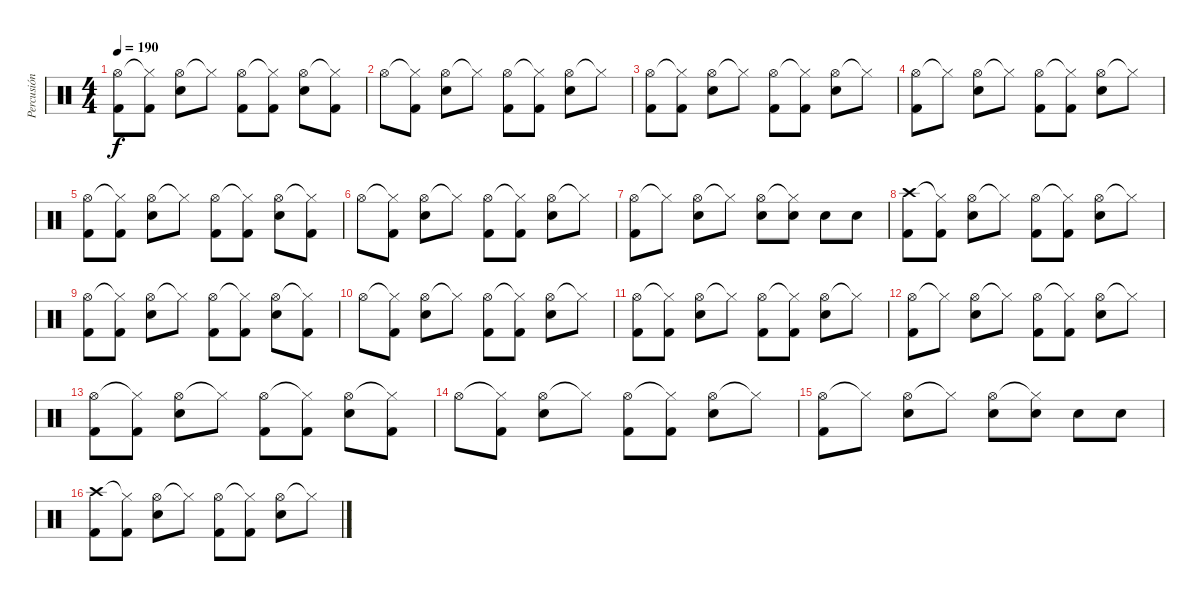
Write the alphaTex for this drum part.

\track ("Percusión" "Percusión") {instrument percussion}
\staff {score}
\articulation defaults
\ts (4 4)
\tempo 190
\clef neutral
\ks c
("Hi-Hat (open)" "Kick (hit) 2").8{dy f} ("Hi-Hat (closed)"{t} "Kick (hit) 2").8 ("Hi-Hat (open)" "Snare (hit) 2").8 "Hi-Hat (closed)"{t}.8 ("Hi-Hat (open)" "Kick (hit) 2").8 ("Hi-Hat (closed)"{t} "Kick (hit) 2").8 ("Hi-Hat (open)" "Snare (hit) 2").8 ("Hi-Hat (closed)"{t} "Kick (hit) 2").8 |
"Hi-Hat (open)".8 ("Hi-Hat (closed)"{t} "Kick (hit) 2").8 ("Hi-Hat (open)" "Snare (hit) 2").8 "Hi-Hat (closed)"{t}.8 ("Hi-Hat (open)" "Kick (hit) 2").8 ("Hi-Hat (closed)"{t} "Kick (hit) 2").8 ("Hi-Hat (open)" "Snare (hit) 2").8 "Hi-Hat (closed)"{t}.8 |
("Hi-Hat (open)" "Kick (hit) 2").8 ("Hi-Hat (closed)"{t} "Kick (hit) 2").8 ("Hi-Hat (open)" "Snare (hit) 2").8 "Hi-Hat (closed)"{t}.8 ("Hi-Hat (open)" "Kick (hit) 2").8 ("Hi-Hat (closed)"{t} "Kick (hit) 2").8 ("Hi-Hat (open)" "Snare (hit) 2").8 "Hi-Hat (closed)"{t}.8 |
("Hi-Hat (open)" "Kick (hit) 2").8 "Hi-Hat (closed)"{t}.8 ("Hi-Hat (open)" "Snare (hit) 2").8 "Hi-Hat (closed)"{t}.8 ("Hi-Hat (open)" "Kick (hit) 2").8 ("Hi-Hat (closed)"{t} "Kick (hit) 2").8 ("Hi-Hat (open)" "Snare (hit) 2").8 "Hi-Hat (closed)"{t}.8 |
("Hi-Hat (open)" "Kick (hit) 2").8 ("Hi-Hat (closed)"{t} "Kick (hit) 2").8 ("Hi-Hat (open)" "Snare (hit) 2").8 "Hi-Hat (closed)"{t}.8 ("Hi-Hat (open)" "Kick (hit) 2").8 ("Hi-Hat (closed)"{t} "Kick (hit) 2").8 ("Hi-Hat (open)" "Snare (hit) 2").8 ("Hi-Hat (closed)"{t} "Kick (hit) 2").8 |
"Hi-Hat (open)".8 ("Hi-Hat (closed)"{t} "Kick (hit) 2").8 ("Hi-Hat (open)" "Snare (hit) 2").8 "Hi-Hat (closed)"{t}.8 ("Hi-Hat (open)" "Kick (hit) 2").8 ("Hi-Hat (closed)"{t} "Kick (hit) 2").8 ("Hi-Hat (open)" "Snare (hit) 2").8 "Hi-Hat (closed)"{t}.8 |
("Hi-Hat (open)" "Kick (hit) 2").8 "Hi-Hat (closed)"{t}.8 ("Hi-Hat (open)" "Snare (hit) 2").8 "Hi-Hat (closed)"{t}.8 ("Hi-Hat (open)" "Snare (hit) 2").8 ("Hi-Hat (closed)"{t} "Snare (hit) 2").8 "Snare (hit) 2".8 "Snare (hit) 2".8 |
("Crash high (hit)" "Kick (hit) 2").8 ("Hi-Hat (closed)"{t} "Kick (hit) 2").8 ("Hi-Hat (open)" "Snare (hit) 2").8 "Hi-Hat (closed)"{t}.8 ("Hi-Hat (open)" "Kick (hit) 2").8 ("Hi-Hat (closed)"{t} "Kick (hit) 2").8 ("Hi-Hat (open)" "Snare (hit) 2").8 "Hi-Hat (closed)"{t}.8 |
("Hi-Hat (open)" "Kick (hit) 2").8 ("Hi-Hat (closed)"{t} "Kick (hit) 2").8 ("Hi-Hat (open)" "Snare (hit) 2").8 "Hi-Hat (closed)"{t}.8 ("Hi-Hat (open)" "Kick (hit) 2").8 ("Hi-Hat (closed)"{t} "Kick (hit) 2").8 ("Hi-Hat (open)" "Snare (hit) 2").8 ("Hi-Hat (closed)"{t} "Kick (hit) 2").8 |
"Hi-Hat (open)".8 ("Hi-Hat (closed)"{t} "Kick (hit) 2").8 ("Hi-Hat (open)" "Snare (hit) 2").8 "Hi-Hat (closed)"{t}.8 ("Hi-Hat (open)" "Kick (hit) 2").8 ("Hi-Hat (closed)"{t} "Kick (hit) 2").8 ("Hi-Hat (open)" "Snare (hit) 2").8 "Hi-Hat (closed)"{t}.8 |
("Hi-Hat (open)" "Kick (hit) 2").8 ("Hi-Hat (closed)"{t} "Kick (hit) 2").8 ("Hi-Hat (open)" "Snare (hit) 2").8 "Hi-Hat (closed)"{t}.8 ("Hi-Hat (open)" "Kick (hit) 2").8 ("Hi-Hat (closed)"{t} "Kick (hit) 2").8 ("Hi-Hat (open)" "Snare (hit) 2").8 "Hi-Hat (closed)"{t}.8 |
("Hi-Hat (open)" "Kick (hit) 2").8 "Hi-Hat (closed)"{t}.8 ("Hi-Hat (open)" "Snare (hit) 2").8 "Hi-Hat (closed)"{t}.8 ("Hi-Hat (open)" "Kick (hit) 2").8 ("Hi-Hat (closed)"{t} "Kick (hit) 2").8 ("Hi-Hat (open)" "Snare (hit) 2").8 "Hi-Hat (closed)"{t}.8 |
("Hi-Hat (open)" "Kick (hit) 2").8 ("Hi-Hat (closed)"{t} "Kick (hit) 2").8 ("Hi-Hat (open)" "Snare (hit) 2").8 "Hi-Hat (closed)"{t}.8 ("Hi-Hat (open)" "Kick (hit) 2").8 ("Hi-Hat (closed)"{t} "Kick (hit) 2").8 ("Hi-Hat (open)" "Snare (hit) 2").8 ("Hi-Hat (closed)"{t} "Kick (hit) 2").8 |
"Hi-Hat (open)".8 ("Hi-Hat (closed)"{t} "Kick (hit) 2").8 ("Hi-Hat (open)" "Snare (hit) 2").8 "Hi-Hat (closed)"{t}.8 ("Hi-Hat (open)" "Kick (hit) 2").8 ("Hi-Hat (closed)"{t} "Kick (hit) 2").8 ("Hi-Hat (open)" "Snare (hit) 2").8 "Hi-Hat (closed)"{t}.8 |
("Hi-Hat (open)" "Kick (hit) 2").8 "Hi-Hat (closed)"{t}.8 ("Hi-Hat (open)" "Snare (hit) 2").8 "Hi-Hat (closed)"{t}.8 ("Hi-Hat (open)" "Snare (hit) 2").8 ("Hi-Hat (closed)"{t} "Snare (hit) 2").8 "Snare (hit) 2".8 "Snare (hit) 2".8 |
("Crash high (hit)" "Kick (hit) 2").8 ("Hi-Hat (closed)"{t} "Kick (hit) 2").8 ("Hi-Hat (open)" "Snare (hit) 2").8 "Hi-Hat (closed)"{t}.8 ("Hi-Hat (open)" "Kick (hit) 2").8 ("Hi-Hat (closed)"{t} "Kick (hit) 2").8 ("Hi-Hat (open)" "Snare (hit) 2").8 "Hi-Hat (closed)"{t}.8
